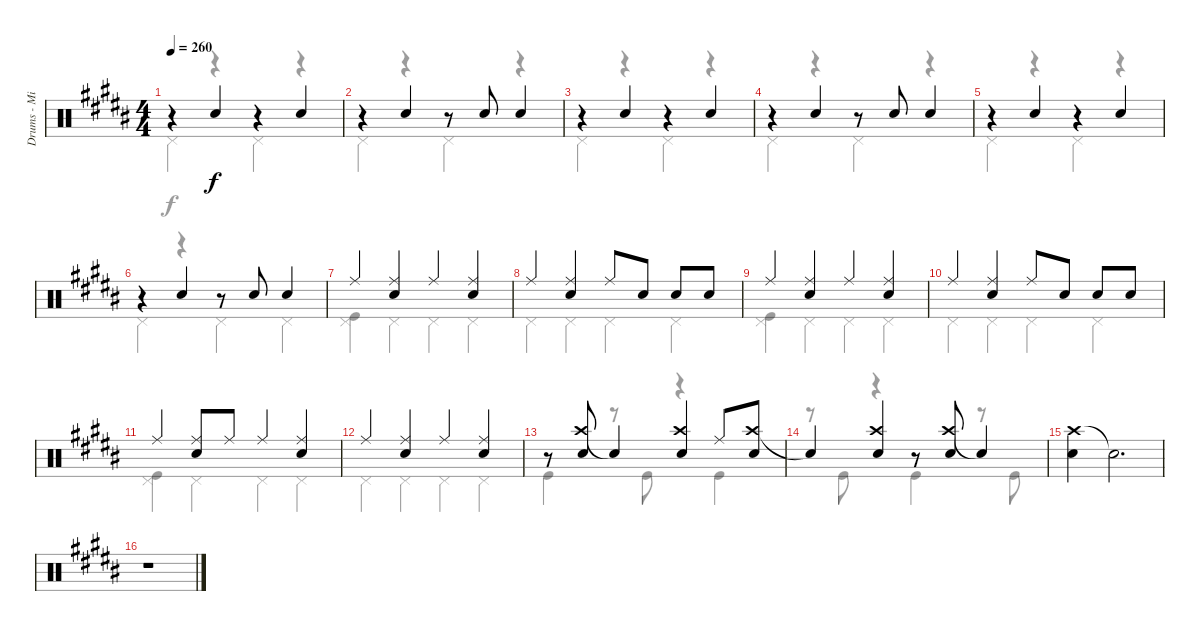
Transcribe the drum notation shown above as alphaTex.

\track ("Drums - Mike Portnoy" "Drums - Mi") {instrument percussion}
\staff {score}
\articulation defaults
\voice
\ts (4 4)
\tempo 260
\clef neutral
\ks b
r.4{dy f} "Snare (hit) 2".4 r.4 "Snare (hit) 2".4 |
r.4 "Snare (hit) 2".4 r.8 "Snare (hit) 2".8 "Snare (hit) 2".4 |
r.4 "Snare (hit) 2".4 r.4 "Snare (hit) 2".4 |
r.4 "Snare (hit) 2".4 r.8 "Snare (hit) 2".8 "Snare (hit) 2".4 |
r.4 "Snare (hit) 2".4 r.4 "Snare (hit) 2".4 |
r.4 "Snare (hit) 2".4 r.8 "Snare (hit) 2".8 "Snare (hit) 2".4 |
"Ride (middle)".4 ("Ride (middle)" "Snare (hit) 2").4 "Ride (middle)".4 ("Ride (middle)" "Snare (hit) 2").4 |
"Ride (middle)".4 ("Ride (middle)" "Snare (hit) 2").4 "Ride (middle)".8 "Snare (hit) 2".8 "Snare (hit) 2".8 "Snare (hit) 2".8 |
"Ride (middle)".4 ("Ride (middle)" "Snare (hit) 2").4 "Ride (middle)".4 ("Ride (middle)" "Snare (hit) 2").4 |
"Ride (middle)".4 ("Ride (middle)" "Snare (hit) 2").4 "Ride (middle)".8 "Snare (hit) 2".8 "Snare (hit) 2".8 "Snare (hit) 2".8 |
"Ride (middle)".4 ("Ride (middle)" "Snare (hit) 2").8 "Ride (middle)".8 "Ride (middle)".4 ("Ride (middle)" "Snare (hit) 2").4 |
"Ride (middle)".4 ("Ride (middle)" "Snare (hit) 2").4 "Ride (middle)".4 ("Ride (middle)" "Snare (hit) 2").4 |
r.8 ("Crash high (hit)" "Snare (hit) 2").8 "Snare (hit)"{t}.4 ("Crash high (hit)" "Snare (hit) 2").4 "Ride (middle)".8 ("Crash high (hit)" "Snare (hit) 2").8 |
"Snare (hit)"{t}.4 ("Crash high (hit)" "Snare (hit) 2").4 r.8 ("Crash high (hit)" "Snare (hit) 2").8 "Snare (hit)"{t}.4 |
("Crash high (hit)" "Snare (hit) 2").4 "Snare (hit)"{t}.2{d} |
r.1
\voice
\clef neutral
\ottava regular
\simile none
\ks b "Pedal Hi-Hat (hit)".4{dy f}
r.4 "Pedal Hi-Hat (hit)".4 r.4 |
"Pedal Hi-Hat (hit)".4 r.4 "Pedal Hi-Hat (hit)".4 r.4 |
"Pedal Hi-Hat (hit)".4 r.4 "Pedal Hi-Hat (hit)".4 r.4 |
"Pedal Hi-Hat (hit)".4 r.4 "Pedal Hi-Hat (hit)".4 r.4 |
"Pedal Hi-Hat (hit)".4 r.4 "Pedal Hi-Hat (hit)".4 r.4 |
"Pedal Hi-Hat (hit)".4 r.4 "Pedal Hi-Hat (hit)".4 "Pedal Hi-Hat (hit)".4 |
("Kick (hit)" "Pedal Hi-Hat (hit)").4 "Pedal Hi-Hat (hit)".4 "Pedal Hi-Hat (hit)".4 "Pedal Hi-Hat (hit)".4 |
"Pedal Hi-Hat (hit)".4 "Pedal Hi-Hat (hit)".4 "Pedal Hi-Hat (hit)".4 "Pedal Hi-Hat (hit)".4 |
("Kick (hit)" "Pedal Hi-Hat (hit)").4 "Pedal Hi-Hat (hit)".4 "Pedal Hi-Hat (hit)".4 "Pedal Hi-Hat (hit)".4 |
"Pedal Hi-Hat (hit)".4 "Pedal Hi-Hat (hit)".4 "Pedal Hi-Hat (hit)".4 "Pedal Hi-Hat (hit)".4 |
("Kick (hit)" "Pedal Hi-Hat (hit)").4 "Pedal Hi-Hat (hit)".4 "Pedal Hi-Hat (hit)".4 "Pedal Hi-Hat (hit)".4 |
"Pedal Hi-Hat (hit)".4 "Pedal Hi-Hat (hit)".4 "Pedal Hi-Hat (hit)".4 "Pedal Hi-Hat (hit)".4 |
"Kick (hit)".4 r.8 "Kick (hit)".8 r.4 "Kick (hit)".4 |
r.8 "Kick (hit)".8 r.4 "Kick (hit)".4 r.8 "Kick (hit)".8 |
|
